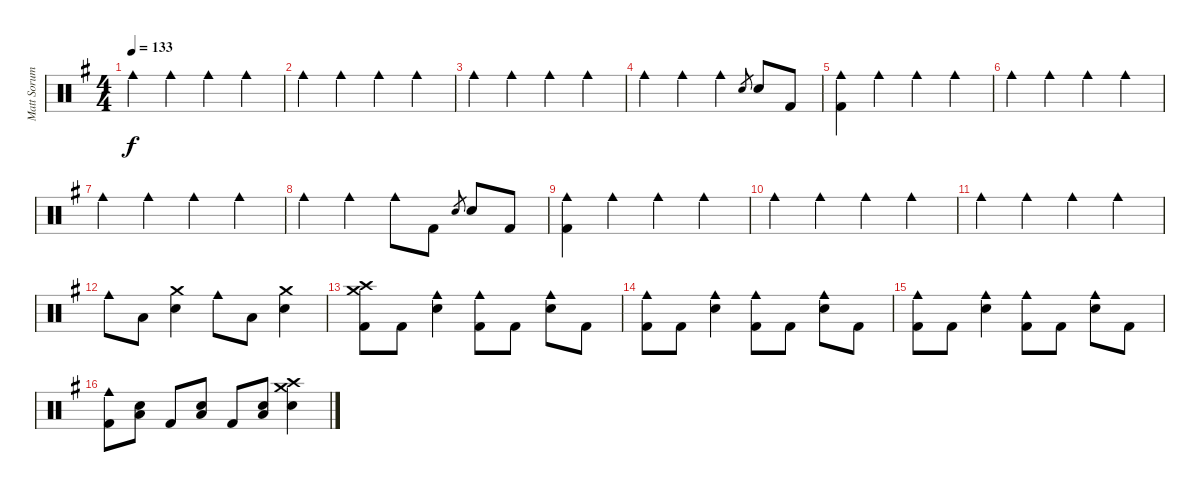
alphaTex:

\track ("Matt Sorum - Drums" "Matt Sorum") {instrument percussion}
\staff {score}
\articulation defaults
\ts (4 4)
\tempo 133
\clef neutral
\ks g "Cowbell medium (hit)".4{dy f} "Cowbell medium (hit)".4 "Cowbell medium (hit)".4 "Cowbell medium (hit)".4
|
"Cowbell medium (hit)".4 "Cowbell medium (hit)".4 "Cowbell medium (hit)".4 "Cowbell medium (hit)".4 |
"Cowbell medium (hit)".4 "Cowbell medium (hit)".4 "Cowbell medium (hit)".4 "Cowbell medium (hit)".4 |
"Cowbell medium (hit)".4 "Cowbell medium (hit)".4 "Cowbell medium (hit)".4 "Snare (hit) 2".8{gr} "Snare (hit) 2".8 "Kick (hit) 2".8 |
("Cowbell medium (hit)" "Kick (hit) 2").4 "Cowbell medium (hit)".4 "Cowbell medium (hit)".4 "Cowbell medium (hit)".4 |
"Cowbell medium (hit)".4 "Cowbell medium (hit)".4 "Cowbell medium (hit)".4 "Cowbell medium (hit)".4 |
"Cowbell medium (hit)".4 "Cowbell medium (hit)".4 "Cowbell medium (hit)".4 "Cowbell medium (hit)".4 |
"Cowbell medium (hit)".4 "Cowbell medium (hit)".4 "Cowbell medium (hit)".8 "Kick (hit) 2".8 "Snare (hit) 2".8{gr} "Snare (hit) 2".8 "Kick (hit) 2".8 |
("Cowbell medium (hit)" "Kick (hit) 2").4 "Cowbell medium (hit)".4 "Cowbell medium (hit)".4 "Cowbell medium (hit)".4 |
"Cowbell medium (hit)".4 "Cowbell medium (hit)".4 "Cowbell medium (hit)".4 "Cowbell medium (hit)".4 |
"Cowbell medium (hit)".4 "Cowbell medium (hit)".4 "Cowbell medium (hit)".4 "Cowbell medium (hit)".4 |
"Cowbell medium (hit)".8 "Low Tom (hit)".8 ("Crash medium (hit)" "Snare (hit) 2").4 "Cowbell medium (hit)".8 "Low Tom (hit)".8 ("Crash medium (hit)" "Snare (hit) 2").4 |
("Crash medium (hit)" "Crash high (hit)" "Kick (hit) 2").8 "Kick (hit) 2".8 ("Cowbell medium (hit)" "Snare (hit) 2").4 ("Cowbell medium (hit)" "Kick (hit) 2").8 "Kick (hit) 2".8 ("Cowbell medium (hit)" "Snare (hit) 2").8 "Kick (hit) 2".8 |
("Cowbell medium (hit)" "Kick (hit) 2").8 "Kick (hit) 2".8 ("Cowbell medium (hit)" "Snare (hit) 2").4 ("Cowbell medium (hit)" "Kick (hit) 2").8 "Kick (hit) 2".8 ("Cowbell medium (hit)" "Snare (hit) 2").8 "Kick (hit) 2".8 |
("Cowbell medium (hit)" "Kick (hit) 2").8 "Kick (hit) 2".8 ("Cowbell medium (hit)" "Snare (hit) 2").4 ("Cowbell medium (hit)" "Kick (hit) 2").8 "Kick (hit) 2".8 ("Cowbell medium (hit)" "Snare (hit) 2").8 "Kick (hit) 2".8 |
("Cowbell medium (hit)" "Kick (hit) 2").8 ("Low Tom (hit)" "Snare (hit) 2").8 "Kick (hit) 2".8 ("Low Tom (hit)" "Snare (hit) 2").8 "Kick (hit) 2".8 ("Low Tom (hit)" "Snare (hit) 2").8 ("Crash medium (hit)" "Crash high (hit)" "Snare (hit) 2").4
